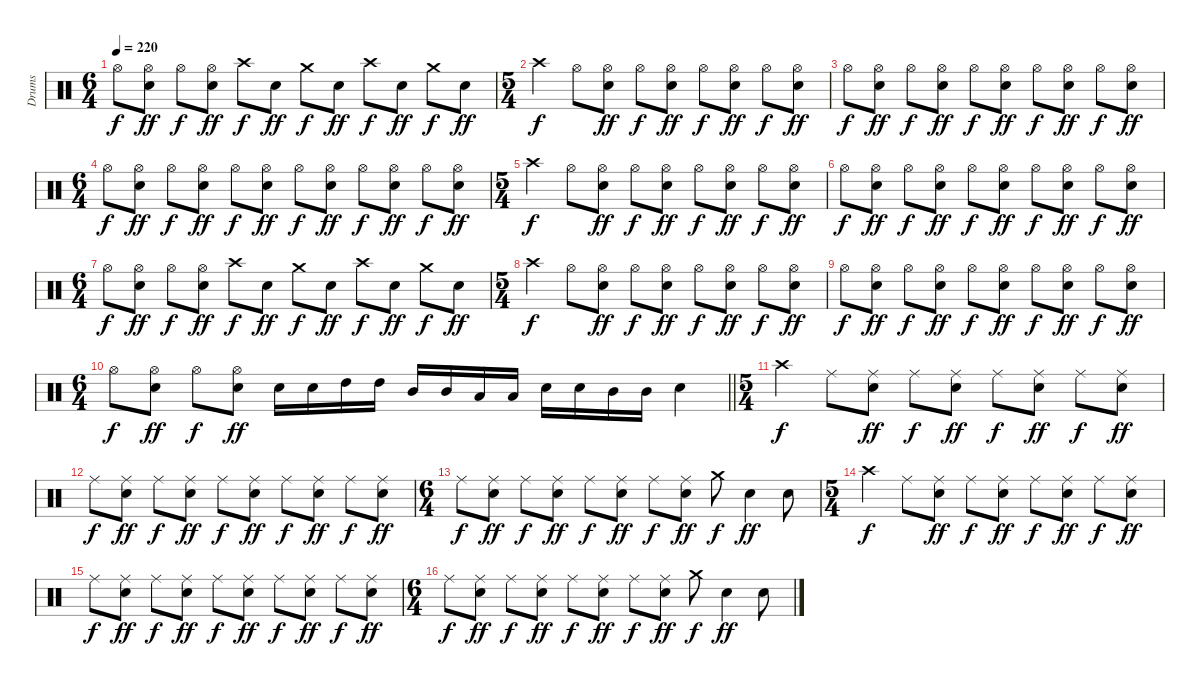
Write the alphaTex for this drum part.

\track ("Drums" "Drums") {instrument percussion}
\staff {score}
\articulation defaults
\ts (6 4)
\tempo 220
\clef neutral
\ks c "Hi-Hat (open)".8{dy f}
("Hi-Hat (open)" "Snare (hit) 2").8{dy ff} "Hi-Hat (open)".8{dy f} ("Hi-Hat (open)" "Snare (hit) 2").8{dy ff} "Crash high (hit)".8{dy f} "Snare (hit) 2".8{dy ff} "Crash medium (hit)".8{dy f} "Snare (hit) 2".8{dy ff} "Crash high (hit)".8{dy f} "Snare (hit) 2".8{dy ff} "Crash medium (hit)".8{dy f} "Snare (hit) 2".8{dy ff} |
\ts (5 4)
"Crash high (hit)".4{dy f} "Hi-Hat (open)".8 ("Hi-Hat (open)" "Snare (hit) 2").8{dy ff} "Hi-Hat (open)".8{dy f} ("Hi-Hat (open)" "Snare (hit) 2").8{dy ff} "Hi-Hat (open)".8{dy f} ("Hi-Hat (open)" "Snare (hit) 2").8{dy ff} "Hi-Hat (open)".8{dy f} ("Hi-Hat (open)" "Snare (hit) 2").8{dy ff} |
"Hi-Hat (open)".8{dy f} ("Hi-Hat (open)" "Snare (hit) 2").8{dy ff} "Hi-Hat (open)".8{dy f} ("Hi-Hat (open)" "Snare (hit) 2").8{dy ff} "Hi-Hat (open)".8{dy f} ("Hi-Hat (open)" "Snare (hit) 2").8{dy ff} "Hi-Hat (open)".8{dy f} ("Hi-Hat (open)" "Snare (hit) 2").8{dy ff} "Hi-Hat (open)".8{dy f} ("Hi-Hat (open)" "Snare (hit) 2").8{dy ff} |
\ts (6 4)
"Hi-Hat (open)".8{dy f} ("Hi-Hat (open)" "Snare (hit) 2").8{dy ff} "Hi-Hat (open)".8{dy f} ("Hi-Hat (open)" "Snare (hit) 2").8{dy ff} "Hi-Hat (open)".8{dy f} ("Hi-Hat (open)" "Snare (hit) 2").8{dy ff} "Hi-Hat (open)".8{dy f} ("Hi-Hat (open)" "Snare (hit) 2").8{dy ff} "Hi-Hat (open)".8{dy f} ("Hi-Hat (open)" "Snare (hit) 2").8{dy ff} "Hi-Hat (open)".8{dy f} ("Hi-Hat (open)" "Snare (hit) 2").8{dy ff} |
\ts (5 4)
"Crash high (hit)".4{dy f} "Hi-Hat (open)".8 ("Hi-Hat (open)" "Snare (hit) 2").8{dy ff} "Hi-Hat (open)".8{dy f} ("Hi-Hat (open)" "Snare (hit) 2").8{dy ff} "Hi-Hat (open)".8{dy f} ("Hi-Hat (open)" "Snare (hit) 2").8{dy ff} "Hi-Hat (open)".8{dy f} ("Hi-Hat (open)" "Snare (hit) 2").8{dy ff} |
"Hi-Hat (open)".8{dy f} ("Hi-Hat (open)" "Snare (hit) 2").8{dy ff} "Hi-Hat (open)".8{dy f} ("Hi-Hat (open)" "Snare (hit) 2").8{dy ff} "Hi-Hat (open)".8{dy f} ("Hi-Hat (open)" "Snare (hit) 2").8{dy ff} "Hi-Hat (open)".8{dy f} ("Hi-Hat (open)" "Snare (hit) 2").8{dy ff} "Hi-Hat (open)".8{dy f} ("Hi-Hat (open)" "Snare (hit) 2").8{dy ff} |
\ts (6 4)
"Hi-Hat (open)".8{dy f} ("Hi-Hat (open)" "Snare (hit) 2").8{dy ff} "Hi-Hat (open)".8{dy f} ("Hi-Hat (open)" "Snare (hit) 2").8{dy ff} "Crash high (hit)".8{dy f} "Snare (hit) 2".8{dy ff} "Crash medium (hit)".8{dy f} "Snare (hit) 2".8{dy ff} "Crash high (hit)".8{dy f} "Snare (hit) 2".8{dy ff} "Crash medium (hit)".8{dy f} "Snare (hit) 2".8{dy ff} |
\ts (5 4)
"Crash high (hit)".4{dy f} "Hi-Hat (open)".8 ("Hi-Hat (open)" "Snare (hit) 2").8{dy ff} "Hi-Hat (open)".8{dy f} ("Hi-Hat (open)" "Snare (hit) 2").8{dy ff} "Hi-Hat (open)".8{dy f} ("Hi-Hat (open)" "Snare (hit) 2").8{dy ff} "Hi-Hat (open)".8{dy f} ("Hi-Hat (open)" "Snare (hit) 2").8{dy ff} |
"Hi-Hat (open)".8{dy f} ("Hi-Hat (open)" "Snare (hit) 2").8{dy ff} "Hi-Hat (open)".8{dy f} ("Hi-Hat (open)" "Snare (hit) 2").8{dy ff} "Hi-Hat (open)".8{dy f} ("Hi-Hat (open)" "Snare (hit) 2").8{dy ff} "Hi-Hat (open)".8{dy f} ("Hi-Hat (open)" "Snare (hit) 2").8{dy ff} "Hi-Hat (open)".8{dy f} ("Hi-Hat (open)" "Snare (hit) 2").8{dy ff} |
\ts (6 4)
\barLineRight lightlight "Hi-Hat (open)".8{dy f}
("Hi-Hat (open)" "Snare (hit) 2").8{dy ff} "Hi-Hat (open)".8{dy f} ("Hi-Hat (open)" "Snare (hit) 2").8{dy ff} "Snare (hit) 2".16 "Snare (hit) 2".16 "High Tom (hit)".16 "High Tom (hit)".16 "Mid Tom (hit)".16 "Mid Tom (hit)".16 "Low Tom (hit)".16 "Low Tom (hit)".16 "Snare (hit) 2".16 "Snare (hit) 2".16 "Mid Tom (hit)".16 "Mid Tom (hit)".16 "Snare (hit) 2".4 |
\ts (5 4)
\section ("" "")
"Crash high (hit)".4{dy f} "Ride (middle)".8 ("Ride (middle)" "Snare (hit) 2").8{dy ff} "Ride (middle)".8{dy f} ("Ride (middle)" "Snare (hit) 2").8{dy ff} "Ride (middle)".8{dy f} ("Ride (middle)" "Snare (hit) 2").8{dy ff} "Ride (middle)".8{dy f} ("Ride (middle)" "Snare (hit) 2").8{dy ff} |
"Ride (middle)".8{dy f} ("Ride (middle)" "Snare (hit) 2").8{dy ff} "Ride (middle)".8{dy f} ("Ride (middle)" "Snare (hit) 2").8{dy ff} "Ride (middle)".8{dy f} ("Ride (middle)" "Snare (hit) 2").8{dy ff} "Ride (middle)".8{dy f} ("Ride (middle)" "Snare (hit) 2").8{dy ff} "Ride (middle)".8{dy f} ("Ride (middle)" "Snare (hit) 2").8{dy ff} |
\ts (6 4)
"Ride (middle)".8{dy f} ("Ride (middle)" "Snare (hit) 2").8{dy ff} "Ride (middle)".8{dy f} ("Ride (middle)" "Snare (hit) 2").8{dy ff} "Ride (middle)".8{dy f} ("Ride (middle)" "Snare (hit) 2").8{dy ff} "Ride (middle)".8{dy f} ("Ride (middle)" "Snare (hit) 2").8{dy ff} "Crash medium (hit)".8{dy f} "Snare (hit) 2".4{dy ff} "Snare (hit) 2".8 |
\ts (5 4)
"Crash high (hit)".4{dy f} "Ride (middle)".8 ("Ride (middle)" "Snare (hit) 2").8{dy ff} "Ride (middle)".8{dy f} ("Ride (middle)" "Snare (hit) 2").8{dy ff} "Ride (middle)".8{dy f} ("Ride (middle)" "Snare (hit) 2").8{dy ff} "Ride (middle)".8{dy f} ("Ride (middle)" "Snare (hit) 2").8{dy ff} |
"Ride (middle)".8{dy f} ("Ride (middle)" "Snare (hit) 2").8{dy ff} "Ride (middle)".8{dy f} ("Ride (middle)" "Snare (hit) 2").8{dy ff} "Ride (middle)".8{dy f} ("Ride (middle)" "Snare (hit) 2").8{dy ff} "Ride (middle)".8{dy f} ("Ride (middle)" "Snare (hit) 2").8{dy ff} "Ride (middle)".8{dy f} ("Ride (middle)" "Snare (hit) 2").8{dy ff} |
\ts (6 4)
"Ride (middle)".8{dy f} ("Ride (middle)" "Snare (hit) 2").8{dy ff} "Ride (middle)".8{dy f} ("Ride (middle)" "Snare (hit) 2").8{dy ff} "Ride (middle)".8{dy f} ("Ride (middle)" "Snare (hit) 2").8{dy ff} "Ride (middle)".8{dy f} ("Ride (middle)" "Snare (hit) 2").8{dy ff} "Crash medium (hit)".8{dy f} "Snare (hit) 2".4{dy ff} "Snare (hit) 2".8
